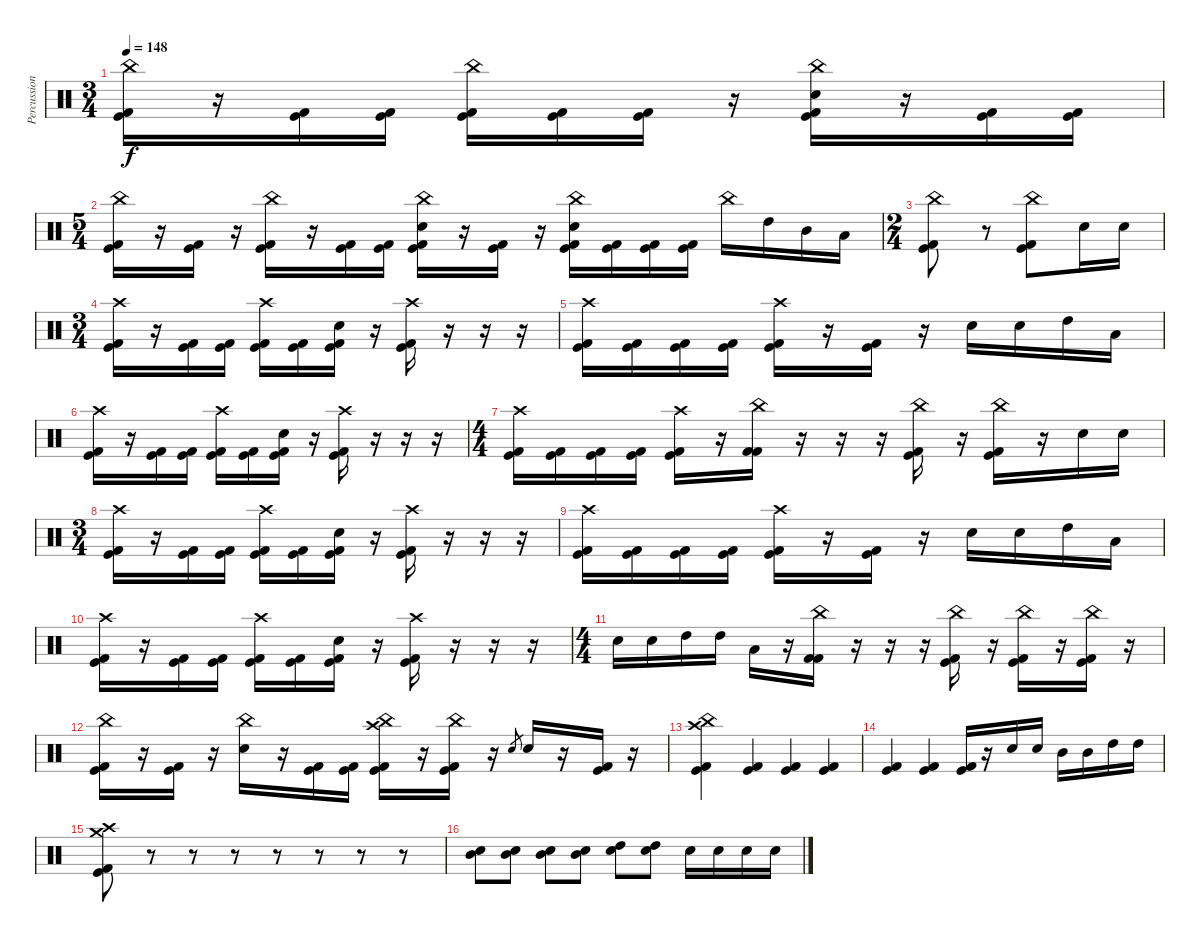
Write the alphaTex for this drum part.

\track ("Percussioni" "Percussion") {instrument percussion}
\staff {score}
\articulation defaults
\ts (3 4)
\tempo 148
\clef neutral
\ks c
("China (hit)" "Kick (hit)" "Kick (hit) 2").16{dy f} r.16 ("Kick (hit)" "Kick (hit) 2").16 ("Kick (hit)" "Kick (hit) 2").16 ("China (hit)" "Kick (hit)" "Kick (hit) 2").16 ("Kick (hit)" "Kick (hit) 2").16 ("Kick (hit)" "Kick (hit) 2").16 r.16 ("China (hit)" "Snare (hit) 2" "Kick (hit)" "Kick (hit) 2").16 r.16 ("Kick (hit)" "Kick (hit) 2").16 ("Kick (hit)" "Kick (hit) 2").16 |
\ts (5 4)
("China (hit)" "Kick (hit)" "Kick (hit) 2").16 r.16 ("Kick (hit)" "Kick (hit) 2").16 r.16 ("China (hit)" "Kick (hit)" "Kick (hit) 2").16 r.16 ("Kick (hit)" "Kick (hit) 2").16 ("Kick (hit)" "Kick (hit) 2").16 ("China (hit)" "Snare (hit) 2" "Kick (hit)" "Kick (hit) 2").16 r.16 ("Kick (hit)" "Kick (hit) 2").16 r.16 ("China (hit)" "Snare (hit) 2" "Kick (hit)" "Kick (hit) 2").16 ("Kick (hit)" "Kick (hit) 2").16 ("Kick (hit)" "Kick (hit) 2").16 ("Kick (hit)" "Kick (hit) 2").16 "China (hit)".16 "High Tom (hit)".16 "Mid Tom (hit)".16 "Low Tom (hit)".16 |
\ts (2 4)
("China (hit)" "Kick (hit)" "Kick (hit) 2").8 r.8 ("China (hit)" "Kick (hit)" "Kick (hit) 2").8 "Snare (hit) 2".16 "Snare (hit) 2".16 |
\ts (3 4)
("Crash high (hit)" "Kick (hit)" "Kick (hit) 2").16 r.16 ("Kick (hit)" "Kick (hit) 2").16 ("Kick (hit)" "Kick (hit) 2").16 ("Crash high (hit)" "Kick (hit)" "Kick (hit) 2").16 ("Kick (hit)" "Kick (hit) 2").16 ("Snare (hit) 2" "Kick (hit)" "Kick (hit) 2").16 r.16 ("Crash high (hit)" "Kick (hit)" "Kick (hit) 2").16 r.16 r.16 r.16 |
("Crash high (hit)" "Kick (hit)" "Kick (hit) 2").16 ("Kick (hit)" "Kick (hit) 2").16 ("Kick (hit)" "Kick (hit) 2").16 ("Kick (hit)" "Kick (hit) 2").16 ("Crash high (hit)" "Kick (hit)" "Kick (hit) 2").16 r.16 ("Kick (hit)" "Kick (hit) 2").16 r.16 "Snare (hit) 2".16 "Snare (hit) 2".16 "High Tom (hit)".16 "Low Tom (hit)".16 |
("Crash high (hit)" "Kick (hit)" "Kick (hit) 2").16 r.16 ("Kick (hit)" "Kick (hit) 2").16 ("Kick (hit)" "Kick (hit) 2").16 ("Crash high (hit)" "Kick (hit)" "Kick (hit) 2").16 ("Kick (hit)" "Kick (hit) 2").16 ("Snare (hit) 2" "Kick (hit)" "Kick (hit) 2").16 r.16 ("Crash high (hit)" "Kick (hit)" "Kick (hit) 2").16 r.16 r.16 r.16 |
\ts (4 4)
("Crash high (hit)" "Kick (hit) 2" "Kick (hit)").16 ("Kick (hit)" "Kick (hit) 2").16 ("Kick (hit)" "Kick (hit) 2").16 ("Kick (hit)" "Kick (hit) 2").16 ("Crash high (hit)" "Kick (hit)" "Kick (hit) 2").16 r.16 ("China (hit)" "Kick (hit) 2" "Kick (hit) 2").16 r.16 r.16 r.16 ("China (hit)" "Kick (hit)" "Kick (hit) 2").16 r.16 ("China (hit)" "Kick (hit)" "Kick (hit) 2").16 r.16 "Snare (hit) 2".16 "Snare (hit) 2".16 |
\ts (3 4)
("Crash high (hit)" "Kick (hit)" "Kick (hit) 2").16 r.16 ("Kick (hit)" "Kick (hit) 2").16 ("Kick (hit)" "Kick (hit) 2").16 ("Crash high (hit)" "Kick (hit)" "Kick (hit) 2").16 ("Kick (hit)" "Kick (hit) 2").16 ("Snare (hit) 2" "Kick (hit)" "Kick (hit) 2").16 r.16 ("Crash high (hit)" "Kick (hit)" "Kick (hit) 2").16 r.16 r.16 r.16 |
("Crash high (hit)" "Kick (hit)" "Kick (hit) 2").16 ("Kick (hit)" "Kick (hit) 2").16 ("Kick (hit)" "Kick (hit) 2").16 ("Kick (hit)" "Kick (hit) 2").16 ("Crash high (hit)" "Kick (hit)" "Kick (hit) 2").16 r.16 ("Kick (hit)" "Kick (hit) 2").16 r.16 "Snare (hit) 2".16 "Snare (hit) 2".16 "High Tom (hit)".16 "Low Tom (hit)".16 |
("Crash high (hit)" "Kick (hit)" "Kick (hit) 2").16 r.16 ("Kick (hit)" "Kick (hit) 2").16 ("Kick (hit)" "Kick (hit) 2").16 ("Crash high (hit)" "Kick (hit)" "Kick (hit) 2").16 ("Kick (hit)" "Kick (hit) 2").16 ("Snare (hit) 2" "Kick (hit)" "Kick (hit) 2").16 r.16 ("Crash high (hit)" "Kick (hit)" "Kick (hit) 2").16 r.16 r.16 r.16 |
\ts (4 4)
"Snare (hit) 2".16 "Snare (hit) 2".16 "High Tom (hit)".16 "High Tom (hit)".16 "Low Tom (hit)".16 r.16 ("China (hit)" "Kick (hit) 2" "Kick (hit) 2").16 r.16 r.16 r.16 ("China (hit)" "Kick (hit)" "Kick (hit) 2").16 r.16 ("China (hit)" "Kick (hit)" "Kick (hit) 2").16 r.16 ("China (hit)" "Kick (hit)" "Kick (hit) 2").16 r.16 |
("China (hit)" "Kick (hit)" "Kick (hit) 2").16 r.16 ("Kick (hit)" "Kick (hit) 2").16 r.16 ("China (hit)" "Snare (hit) 2").16 r.16 ("Kick (hit)" "Kick (hit) 2").16 ("Kick (hit)" "Kick (hit) 2").16 ("Crash high (hit)" "China (hit)" "Kick (hit)" "Kick (hit) 2").16 r.16 ("China (hit)" "Kick (hit)" "Kick (hit) 2").16 r.16 "Snare (hit) 2".8{gr} "Snare (hit) 2".16 r.16 ("Kick (hit)" "Kick (hit) 2").16 r.16 |
("China (hit)" "Crash high (hit)" "Kick (hit)" "Kick (hit) 2").4 ("Kick (hit)" "Kick (hit) 2").4 ("Kick (hit)" "Kick (hit) 2").4 ("Kick (hit)" "Kick (hit) 2").4 |
("Kick (hit)" "Kick (hit) 2").4 ("Kick (hit)" "Kick (hit) 2").4 ("Kick (hit)" "Kick (hit) 2").16 r.16 "Snare (hit) 2".16 "Snare (hit) 2".16 "Mid Tom (hit)".16 "Mid Tom (hit)".16 "High Tom (hit)".16 "High Tom (hit)".16 |
("Crash medium (hit)" "Crash high (hit)" "Kick (hit) 2" "Kick (hit)").8 r.8 r.8 r.8 r.8 r.8 r.8 r.8 |
("Mid Tom (hit)" "Snare (hit) 2").8 ("Mid Tom (hit)" "Snare (hit) 2").8 ("Mid Tom (hit)" "Snare (hit) 2").8 ("Mid Tom (hit)" "Snare (hit) 2").8 ("High Tom (hit)" "Snare (hit) 2").8 ("High Tom (hit)" "Snare (hit) 2").8 "Snare (hit) 2".16 "Snare (hit) 2".16 "Snare (hit) 2".16 "Snare (hit) 2".16
